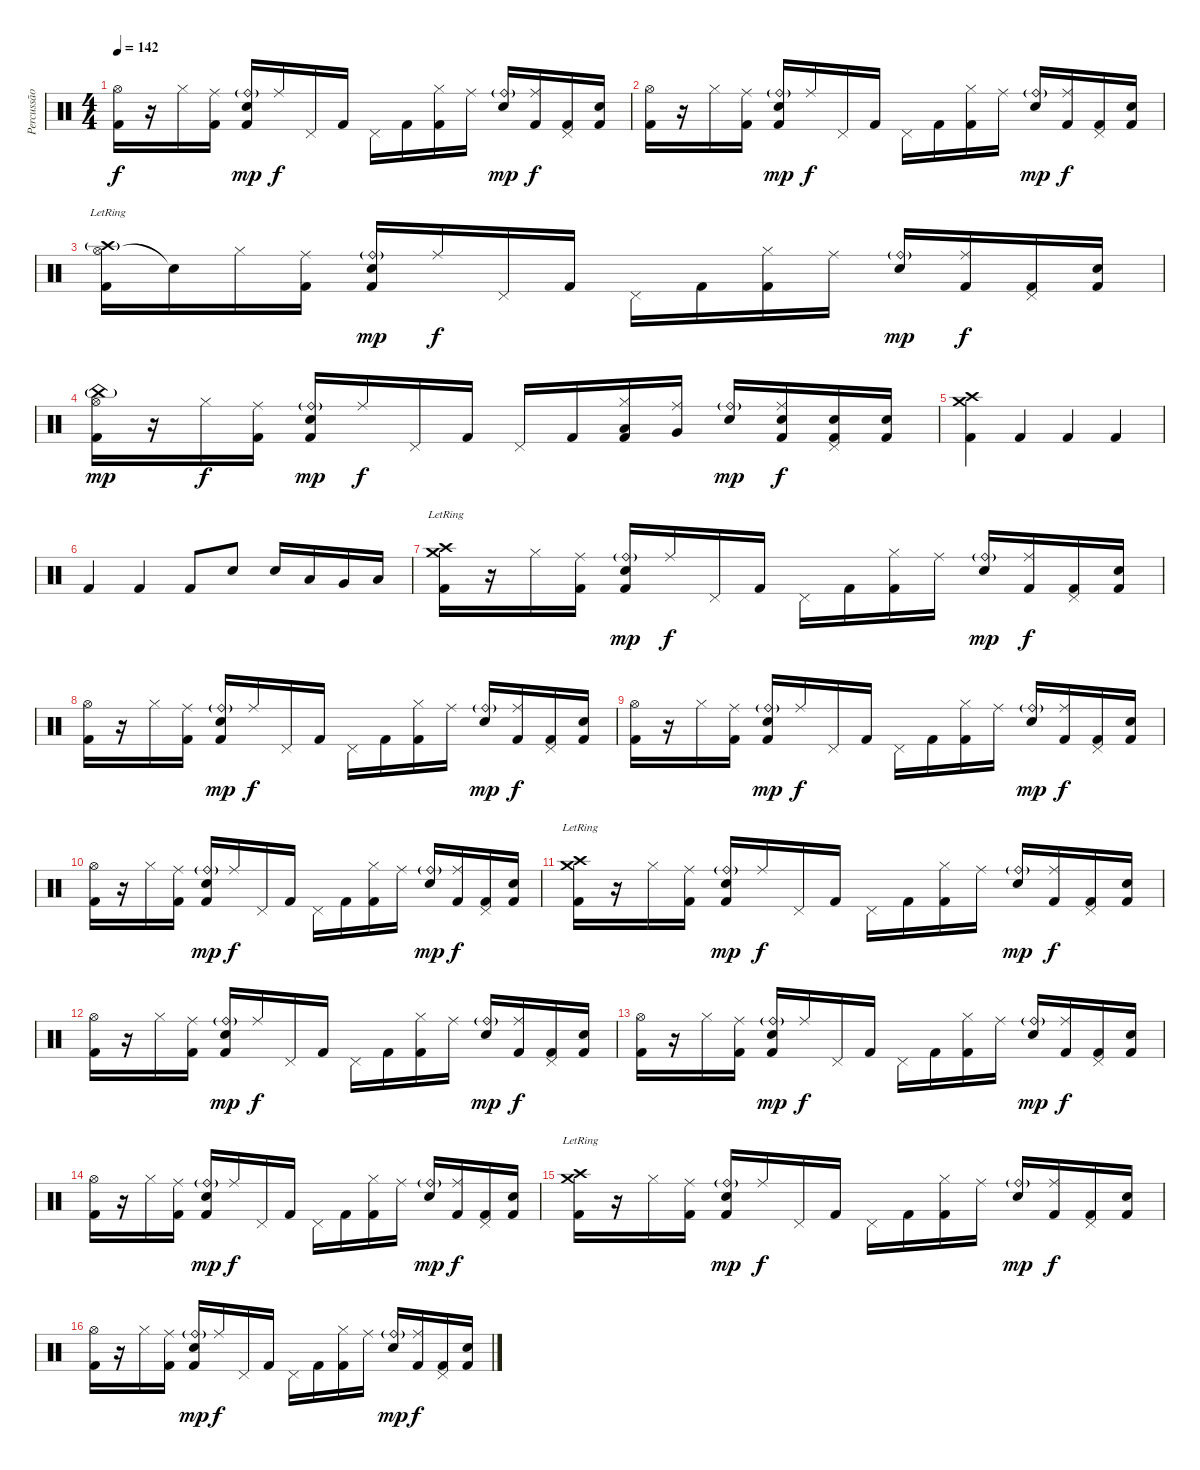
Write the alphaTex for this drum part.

\track ("Percussão" "Percussão") {instrument percussion}
\staff {score}
\articulation defaults
\ts (4 4)
\tempo 142
\clef neutral
\ks c
("Hi-Hat (open)" "Kick (hit) 2").16{dy f} r.16 "Hi-Hat (closed)".16 ("Ride (middle)" "Kick (hit) 2").16 ("Ride (bell)"{g} "Snare (hit) 2" "Kick (hit) 2").16{dy mp} "Ride (middle)".16{dy f} "Pedal Hi-Hat (hit)".16 "Kick (hit) 2".16 "Pedal Hi-Hat (hit)".16 "Kick (hit) 2".16 ("Hi-Hat (closed)" "Kick (hit) 2").16 "Ride (middle)".16 ("Ride (bell)"{g} "Snare (hit) 2").16{dy mp} ("Ride (middle)" "Kick (hit) 2").16{dy f} ("Pedal Hi-Hat (hit)" "Kick (hit) 2").16 ("Snare (hit) 2" "Kick (hit) 2").16 |
("Hi-Hat (open)" "Kick (hit) 2").16 r.16 "Hi-Hat (closed)".16 ("Ride (middle)" "Kick (hit) 2").16 ("Ride (bell)"{g} "Snare (hit) 2" "Kick (hit) 2").16{dy mp} "Ride (middle)".16{dy f} "Pedal Hi-Hat (hit)".16 "Kick (hit) 2".16 "Pedal Hi-Hat (hit)".16 "Kick (hit) 2".16 ("Hi-Hat (closed)" "Kick (hit) 2").16 "Ride (middle)".16 ("Ride (bell)"{g} "Snare (hit) 2").16{dy mp} ("Ride (middle)" "Kick (hit) 2").16{dy f} ("Pedal Hi-Hat (hit)" "Kick (hit) 2").16 ("Snare (hit) 2" "Kick (hit) 2").16 |
("Hi-Hat (open)" "Crash high (hit)"{g lr} "Kick (hit) 2").16 "Snare (hit)"{t}.16 "Hi-Hat (closed)".16 ("Ride (middle)" "Kick (hit) 2").16 ("Ride (bell)"{g} "Snare (hit) 2" "Kick (hit) 2").16{dy mp} "Ride (middle)".16{dy f} "Pedal Hi-Hat (hit)".16 "Kick (hit) 2".16 "Pedal Hi-Hat (hit)".16 "Kick (hit) 2".16 ("Hi-Hat (closed)" "Kick (hit) 2").16 "Ride (middle)".16 ("Ride (bell)"{g} "Snare (hit) 2").16{dy mp} ("Ride (middle)" "Kick (hit) 2").16{dy f} ("Pedal Hi-Hat (hit)" "Kick (hit) 2").16 ("Snare (hit) 2" "Kick (hit) 2").16 |
("Hi-Hat (open)" "China (hit)"{g} "Kick (hit) 2").16{dy mp} r.16 "Hi-Hat (closed)".16{dy f} ("Ride (middle)" "Kick (hit) 2").16 ("Ride (bell)"{g} "Snare (hit) 2" "Kick (hit) 2").16{dy mp} "Ride (middle)".16{dy f} "Pedal Hi-Hat (hit)".16 "Kick (hit) 2".16 "Pedal Hi-Hat (hit)".16 "Kick (hit) 2".16 ("Hi-Hat (closed)" "Low Tom (hit)" "Kick (hit) 2").16 ("Ride (middle)" "Very Low Tom (hit)").16 ("Ride (bell)"{g} "Snare (hit) 2").16{dy mp} ("Ride (middle)" "Snare (hit) 2" "Kick (hit) 2").16{dy f} ("Pedal Hi-Hat (hit)" "Snare (hit) 2" "Kick (hit) 2").16 ("Snare (hit) 2" "Kick (hit) 2").16 |
("Crash medium (hit)" "Crash high (hit)" "Kick (hit) 2").4 "Kick (hit) 2".4 "Kick (hit) 2".4 "Kick (hit) 2".4 |
"Kick (hit) 2".4 "Kick (hit) 2".4 "Kick (hit) 2".8 "Snare (hit) 2".8 "Snare (hit) 2".16 "Low Tom (hit)".16 "Very Low Tom (hit)".16 "Low Floor Tom (hit)".16 |
("Crash medium (hit)" "Crash high (hit)"{lr} "Kick (hit) 2").16 r.16 "Hi-Hat (closed)".16 ("Ride (middle)" "Kick (hit) 2").16 ("Ride (bell)"{g} "Snare (hit) 2" "Kick (hit) 2").16{dy mp} "Ride (middle)".16{dy f} "Pedal Hi-Hat (hit)".16 "Kick (hit) 2".16 "Pedal Hi-Hat (hit)".16 "Kick (hit) 2".16 ("Hi-Hat (closed)" "Kick (hit) 2").16 "Ride (middle)".16 ("Ride (bell)"{g} "Snare (hit) 2").16{dy mp} ("Ride (middle)" "Kick (hit) 2").16{dy f} ("Pedal Hi-Hat (hit)" "Kick (hit) 2").16 ("Snare (hit) 2" "Kick (hit) 2").16 |
("Hi-Hat (open)" "Kick (hit) 2").16 r.16 "Hi-Hat (closed)".16 ("Ride (middle)" "Kick (hit) 2").16 ("Ride (bell)"{g} "Snare (hit) 2" "Kick (hit) 2").16{dy mp} "Ride (middle)".16{dy f} "Pedal Hi-Hat (hit)".16 "Kick (hit) 2".16 "Pedal Hi-Hat (hit)".16 "Kick (hit) 2".16 ("Hi-Hat (closed)" "Kick (hit) 2").16 "Ride (middle)".16 ("Ride (bell)"{g} "Snare (hit) 2").16{dy mp} ("Ride (middle)" "Kick (hit) 2").16{dy f} ("Pedal Hi-Hat (hit)" "Kick (hit) 2").16 ("Snare (hit) 2" "Kick (hit) 2").16 |
("Hi-Hat (open)" "Kick (hit) 2").16 r.16 "Hi-Hat (closed)".16 ("Ride (middle)" "Kick (hit) 2").16 ("Ride (bell)"{g} "Snare (hit) 2" "Kick (hit) 2").16{dy mp} "Ride (middle)".16{dy f} "Pedal Hi-Hat (hit)".16 "Kick (hit) 2".16 "Pedal Hi-Hat (hit)".16 "Kick (hit) 2".16 ("Hi-Hat (closed)" "Kick (hit) 2").16 "Ride (middle)".16 ("Ride (bell)"{g} "Snare (hit) 2").16{dy mp} ("Ride (middle)" "Kick (hit) 2").16{dy f} ("Pedal Hi-Hat (hit)" "Kick (hit) 2").16 ("Snare (hit) 2" "Kick (hit) 2").16 |
("Hi-Hat (open)" "Kick (hit) 2").16 r.16 "Hi-Hat (closed)".16 ("Ride (middle)" "Kick (hit) 2").16 ("Ride (bell)"{g} "Snare (hit) 2" "Kick (hit) 2").16{dy mp} "Ride (middle)".16{dy f} "Pedal Hi-Hat (hit)".16 "Kick (hit) 2".16 "Pedal Hi-Hat (hit)".16 "Kick (hit) 2".16 ("Hi-Hat (closed)" "Kick (hit) 2").16 "Ride (middle)".16 ("Ride (bell)"{g} "Snare (hit) 2").16{dy mp} ("Ride (middle)" "Kick (hit) 2").16{dy f} ("Pedal Hi-Hat (hit)" "Kick (hit) 2").16 ("Snare (hit) 2" "Kick (hit) 2").16 |
("Crash medium (hit)" "Crash high (hit)"{lr} "Kick (hit) 2").16 r.16 "Hi-Hat (closed)".16 ("Ride (middle)" "Kick (hit) 2").16 ("Ride (bell)"{g} "Snare (hit) 2" "Kick (hit) 2").16{dy mp} "Ride (middle)".16{dy f} "Pedal Hi-Hat (hit)".16 "Kick (hit) 2".16 "Pedal Hi-Hat (hit)".16 "Kick (hit) 2".16 ("Hi-Hat (closed)" "Kick (hit) 2").16 "Ride (middle)".16 ("Ride (bell)"{g} "Snare (hit) 2").16{dy mp} ("Ride (middle)" "Kick (hit) 2").16{dy f} ("Pedal Hi-Hat (hit)" "Kick (hit) 2").16 ("Snare (hit) 2" "Kick (hit) 2").16 |
("Hi-Hat (open)" "Kick (hit) 2").16 r.16 "Hi-Hat (closed)".16 ("Ride (middle)" "Kick (hit) 2").16 ("Ride (bell)"{g} "Snare (hit) 2" "Kick (hit) 2").16{dy mp} "Ride (middle)".16{dy f} "Pedal Hi-Hat (hit)".16 "Kick (hit) 2".16 "Pedal Hi-Hat (hit)".16 "Kick (hit) 2".16 ("Hi-Hat (closed)" "Kick (hit) 2").16 "Ride (middle)".16 ("Ride (bell)"{g} "Snare (hit) 2").16{dy mp} ("Ride (middle)" "Kick (hit) 2").16{dy f} ("Pedal Hi-Hat (hit)" "Kick (hit) 2").16 ("Snare (hit) 2" "Kick (hit) 2").16 |
("Hi-Hat (open)" "Kick (hit) 2").16 r.16 "Hi-Hat (closed)".16 ("Ride (middle)" "Kick (hit) 2").16 ("Ride (bell)"{g} "Snare (hit) 2" "Kick (hit) 2").16{dy mp} "Ride (middle)".16{dy f} "Pedal Hi-Hat (hit)".16 "Kick (hit) 2".16 "Pedal Hi-Hat (hit)".16 "Kick (hit) 2".16 ("Hi-Hat (closed)" "Kick (hit) 2").16 "Ride (middle)".16 ("Ride (bell)"{g} "Snare (hit) 2").16{dy mp} ("Ride (middle)" "Kick (hit) 2").16{dy f} ("Pedal Hi-Hat (hit)" "Kick (hit) 2").16 ("Snare (hit) 2" "Kick (hit) 2").16 |
("Hi-Hat (open)" "Kick (hit) 2").16 r.16 "Hi-Hat (closed)".16 ("Ride (middle)" "Kick (hit) 2").16 ("Ride (bell)"{g} "Snare (hit) 2" "Kick (hit) 2").16{dy mp} "Ride (middle)".16{dy f} "Pedal Hi-Hat (hit)".16 "Kick (hit) 2".16 "Pedal Hi-Hat (hit)".16 "Kick (hit) 2".16 ("Hi-Hat (closed)" "Kick (hit) 2").16 "Ride (middle)".16 ("Ride (bell)"{g} "Snare (hit) 2").16{dy mp} ("Ride (middle)" "Kick (hit) 2").16{dy f} ("Pedal Hi-Hat (hit)" "Kick (hit) 2").16 ("Snare (hit) 2" "Kick (hit) 2").16 |
("Crash medium (hit)" "Crash high (hit)"{lr} "Kick (hit) 2").16 r.16 "Hi-Hat (closed)".16 ("Ride (middle)" "Kick (hit) 2").16 ("Ride (bell)"{g} "Snare (hit) 2" "Kick (hit) 2").16{dy mp} "Ride (middle)".16{dy f} "Pedal Hi-Hat (hit)".16 "Kick (hit) 2".16 "Pedal Hi-Hat (hit)".16 "Kick (hit) 2".16 ("Hi-Hat (closed)" "Kick (hit) 2").16 "Ride (middle)".16 ("Ride (bell)"{g} "Snare (hit) 2").16{dy mp} ("Ride (middle)" "Kick (hit) 2").16{dy f} ("Pedal Hi-Hat (hit)" "Kick (hit) 2").16 ("Snare (hit) 2" "Kick (hit) 2").16 |
("Hi-Hat (open)" "Kick (hit) 2").16 r.16 "Hi-Hat (closed)".16 ("Ride (middle)" "Kick (hit) 2").16 ("Ride (bell)"{g} "Snare (hit) 2" "Kick (hit) 2").16{dy mp} "Ride (middle)".16{dy f} "Pedal Hi-Hat (hit)".16 "Kick (hit) 2".16 "Pedal Hi-Hat (hit)".16 "Kick (hit) 2".16 ("Hi-Hat (closed)" "Kick (hit) 2").16 "Ride (middle)".16 ("Ride (bell)"{g} "Snare (hit) 2").16{dy mp} ("Ride (middle)" "Kick (hit) 2").16{dy f} ("Pedal Hi-Hat (hit)" "Kick (hit) 2").16 ("Snare (hit) 2" "Kick (hit) 2").16
